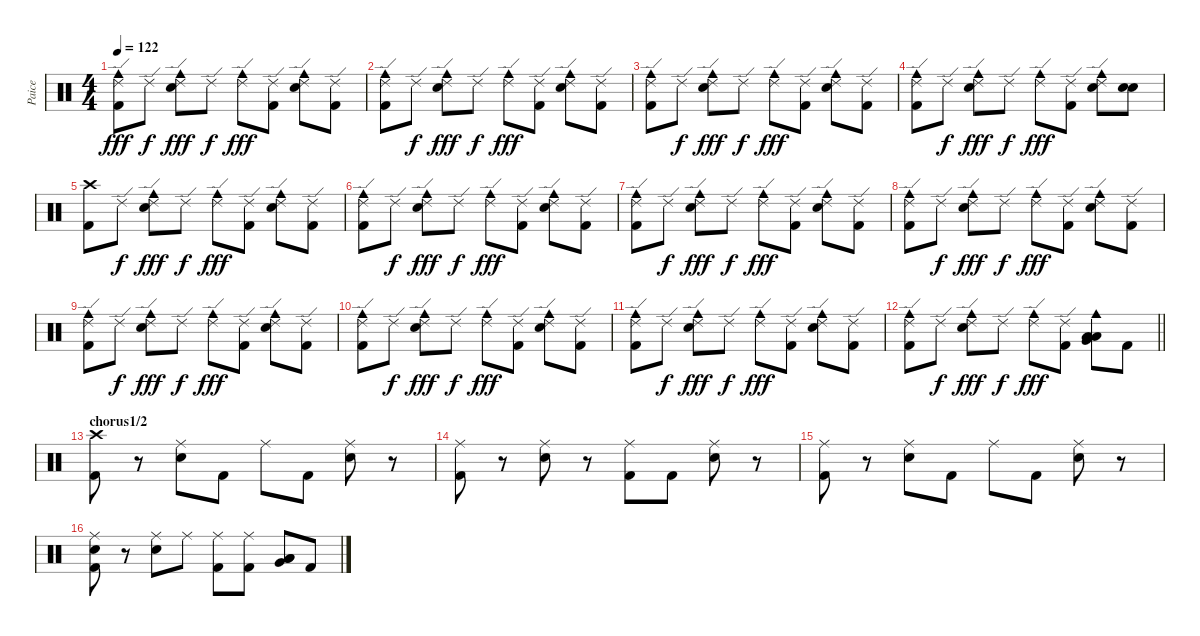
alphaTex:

\track ("Paice" "Paice") {instrument percussion}
\staff {score}
\articulation defaults
\ts (4 4)
\tempo 122
\clef neutral
\ks c
("Cowbell medium (hit)" "Kick (hit) 2" "Ride (edge) 2").8{dy fff} "Ride (edge) 2".8{dy f} ("Electric Snare (hit)" "Cowbell medium (hit)" "Ride (edge) 2").8{dy fff} "Ride (edge) 2".8{dy f} ("Ride (edge) 2" "Cowbell medium (hit)").8{dy fff} ("Ride (edge) 2" "Kick (hit) 2").8 ("Electric Snare (hit)" "Ride (edge) 2" "Cowbell medium (hit)").8 ("Ride (edge) 2" "Kick (hit) 2").8 |
("Ride (edge) 2" "Kick (hit) 2" "Cowbell medium (hit)").8 "Ride (edge) 2".8{dy f} ("Ride (edge) 2" "Electric Snare (hit)" "Cowbell medium (hit)").8{dy fff} "Ride (edge) 2".8{dy f} ("Ride (edge) 2" "Cowbell medium (hit)").8{dy fff} ("Ride (edge) 2" "Kick (hit) 2").8 ("Ride (edge) 2" "Cowbell medium (hit)" "Electric Snare (hit)").8 ("Kick (hit) 2" "Ride (edge) 2").8 |
("Cowbell medium (hit)" "Ride (edge) 2" "Kick (hit) 2").8 "Ride (edge) 2".8{dy f} ("Electric Snare (hit)" "Ride (edge) 2" "Cowbell medium (hit)").8{dy fff} "Ride (edge) 2".8{dy f} ("Ride (edge) 2" "Cowbell medium (hit)").8{dy fff} ("Kick (hit) 2" "Ride (edge) 2").8 ("Electric Snare (hit)" "Ride (edge) 2" "Cowbell medium (hit)").8 ("Kick (hit) 2" "Ride (edge) 2").8 |
("Ride (edge) 2" "Cowbell medium (hit)" "Kick (hit) 2").8 "Ride (edge) 2".8{dy f} ("Electric Snare (hit)" "Ride (edge) 2" "Cowbell medium (hit)").8{dy fff} "Ride (edge) 2".8{dy f} ("Cowbell medium (hit)" "Ride (edge) 2").8{dy fff} ("Kick (hit) 2" "Ride (edge) 2").8 ("Ride (edge) 2" "Electric Snare (hit)" "Cowbell medium (hit)").8 ("Electric Snare (hit)" "Electric Snare (hit)").8 |
("Kick (hit) 2" "Crash high (hit)").8 "Ride (edge) 2".8{dy f} ("Ride (edge) 2" "Cowbell medium (hit)" "Electric Snare (hit)").8{dy fff} "Ride (edge) 2".8{dy f} ("Ride (edge) 2" "Cowbell medium (hit)").8{dy fff} ("Ride (edge) 2" "Kick (hit) 2").8 ("Ride (edge) 2" "Cowbell medium (hit)" "Electric Snare (hit)").8 ("Ride (edge) 2" "Kick (hit) 2").8 |
("Ride (edge) 2" "Kick (hit) 2" "Cowbell medium (hit)").8 "Ride (edge) 2".8{dy f} ("Ride (edge) 2" "Electric Snare (hit)" "Cowbell medium (hit)").8{dy fff} "Ride (edge) 2".8{dy f} ("Ride (edge) 2" "Cowbell medium (hit)").8{dy fff} ("Kick (hit) 2" "Ride (edge) 2").8 ("Ride (edge) 2" "Cowbell medium (hit)" "Electric Snare (hit)").8 ("Kick (hit) 2" "Ride (edge) 2").8 |
("Ride (edge) 2" "Kick (hit) 2" "Cowbell medium (hit)").8 "Ride (edge) 2".8{dy f} ("Ride (edge) 2" "Electric Snare (hit)" "Cowbell medium (hit)").8{dy fff} "Ride (edge) 2".8{dy f} ("Ride (edge) 2" "Cowbell medium (hit)").8{dy fff} ("Kick (hit) 2" "Ride (edge) 2").8 ("Ride (edge) 2" "Electric Snare (hit)" "Cowbell medium (hit)").8 ("Ride (edge) 2" "Kick (hit) 2").8 |
("Kick (hit) 2" "Cowbell medium (hit)" "Ride (edge) 2").8 "Ride (edge) 2".8{dy f} ("Ride (edge) 2" "Electric Snare (hit)" "Cowbell medium (hit)").8{dy fff} "Ride (edge) 2".8{dy f} ("Cowbell medium (hit)" "Ride (edge) 2").8{dy fff} ("Ride (edge) 2" "Kick (hit) 2").8 ("Cowbell medium (hit)" "Electric Snare (hit)" "Ride (edge) 2").8 ("Ride (edge) 2" "Kick (hit) 2").8 |
("Ride (edge) 2" "Cowbell medium (hit)" "Kick (hit) 2").8 "Ride (edge) 2".8{dy f} ("Ride (edge) 2" "Cowbell medium (hit)" "Electric Snare (hit)").8{dy fff} "Ride (edge) 2".8{dy f} ("Ride (edge) 2" "Cowbell medium (hit)").8{dy fff} ("Kick (hit) 2" "Ride (edge) 2").8 ("Cowbell medium (hit)" "Electric Snare (hit)" "Ride (edge) 2").8 ("Ride (edge) 2" "Kick (hit) 2").8 |
("Cowbell medium (hit)" "Kick (hit) 2" "Ride (edge) 2").8 "Ride (edge) 2".8{dy f} ("Ride (edge) 2" "Cowbell medium (hit)" "Electric Snare (hit)").8{dy fff} "Ride (edge) 2".8{dy f} ("Cowbell medium (hit)" "Ride (edge) 2").8{dy fff} ("Ride (edge) 2" "Kick (hit) 2").8 ("Electric Snare (hit)" "Cowbell medium (hit)" "Ride (edge) 2").8 ("Ride (edge) 2" "Kick (hit) 2").8 |
("Ride (edge) 2" "Kick (hit) 2" "Cowbell medium (hit)").8 "Ride (edge) 2".8{dy f} ("Electric Snare (hit)" "Ride (edge) 2" "Cowbell medium (hit)").8{dy fff} "Ride (edge) 2".8{dy f} ("Cowbell medium (hit)" "Ride (edge) 2").8{dy fff} ("Kick (hit) 2" "Ride (edge) 2").8 ("Ride (edge) 2" "Cowbell medium (hit)" "Electric Snare (hit)").8 ("Kick (hit) 2" "Ride (edge) 2").8 |
\barLineRight lightlight
("Ride (edge) 2" "Cowbell medium (hit)" "Kick (hit) 2").8 "Ride (edge) 2".8{dy f} ("Cowbell medium (hit)" "Ride (edge) 2" "Electric Snare (hit)").8{dy fff} "Ride (edge) 2".8{dy f} ("Cowbell medium (hit)" "Ride (edge) 2").8{dy fff} ("Kick (hit) 2" "Ride (edge) 2").8 ("Low Tom (hit)" "Cowbell medium (hit)" "Low Tom (hit)" "Very Low Tom (hit)").8 "Kick (hit) 2".8 |
\section ("" "chorus1/2")
("Kick (hit) 2" "Crash high (hit)").8 r.8 ("Ride (middle)" "Electric Snare (hit)").8 "Kick (hit) 2".8 "Ride (middle)".8 "Kick (hit) 2".8 ("Ride (middle)" "Electric Snare (hit)").8 r.8 |
("Ride (middle)" "Kick (hit) 2").8 r.8 ("Electric Snare (hit)" "Ride (middle)").8 r.8 ("Ride (middle)" "Kick (hit) 2").8 "Kick (hit) 2".8 ("Electric Snare (hit)" "Ride (middle)").8 r.8 |
("Ride (middle)" "Kick (hit) 2").8 r.8 ("Ride (middle)" "Electric Snare (hit)").8 "Kick (hit) 2".8 "Ride (middle)".8 "Kick (hit) 2".8 ("Electric Snare (hit)" "Ride (middle)").8 r.8 |
("Electric Snare (hit)" "Kick (hit) 2" "Ride (middle)").8 r.8 ("Electric Snare (hit)" "Ride (middle)").8 "Ride (middle)".8 ("Ride (middle)" "Kick (hit) 2").8 ("Ride (middle)" "Kick (hit) 2").8 ("Low Tom (hit)" "Low Tom (hit)" "Very Low Tom (hit)").8 "Kick (hit) 2".8
